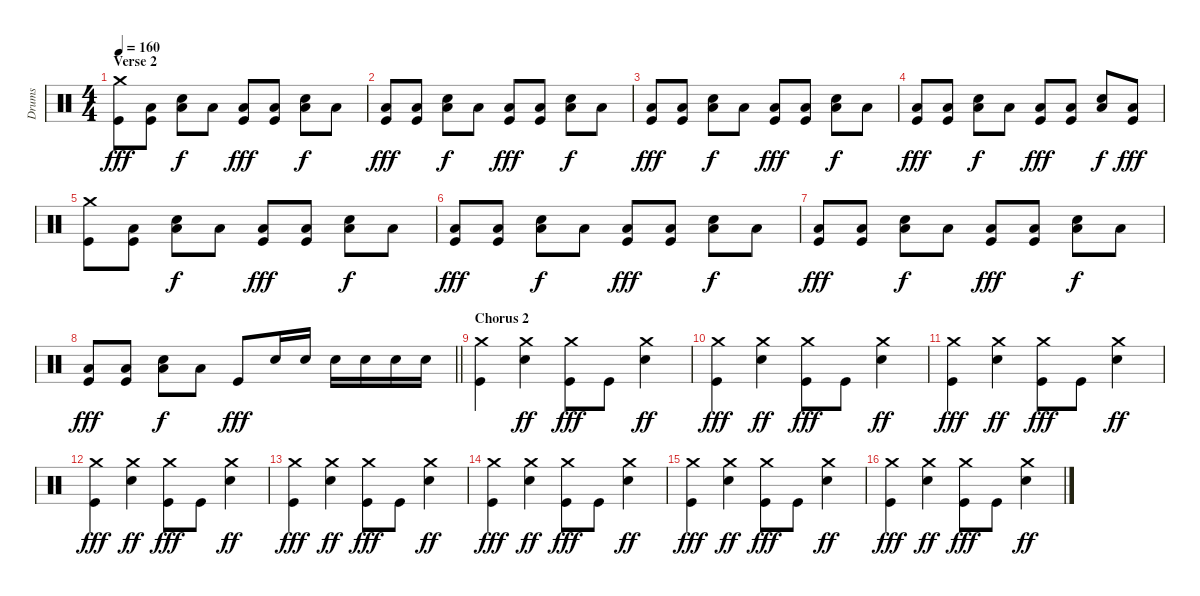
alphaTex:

\track ("Drums" "Drums") {instrument percussion}
\staff {score}
\articulation defaults
\ts (4 4)
\section ("" "Verse 2")
\tempo 160
\clef neutral
\ks c
("Crash medium (hit)" "Kick (hit)").8{dy fff} ("Low Floor Tom (hit)" "Kick (hit)").8 ("Low Floor Tom (hit)" "Electric Snare (hit)").8{dy f} "Low Floor Tom (hit)".8 ("Low Floor Tom (hit)" "Kick (hit)").8{dy fff} ("Low Floor Tom (hit)" "Kick (hit)").8 ("Low Floor Tom (hit)" "Electric Snare (hit)").8{dy f} "Low Floor Tom (hit)".8 |
("Low Floor Tom (hit)" "Kick (hit)").8{dy fff} ("Low Floor Tom (hit)" "Kick (hit)").8 ("Low Floor Tom (hit)" "Electric Snare (hit)").8{dy f} "Low Floor Tom (hit)".8 ("Low Floor Tom (hit)" "Kick (hit)").8{dy fff} ("Low Floor Tom (hit)" "Kick (hit)").8 ("Low Floor Tom (hit)" "Electric Snare (hit)").8{dy f} "Low Floor Tom (hit)".8 |
("Low Floor Tom (hit)" "Kick (hit)").8{dy fff} ("Low Floor Tom (hit)" "Kick (hit)").8 ("Low Floor Tom (hit)" "Electric Snare (hit)").8{dy f} "Low Floor Tom (hit)".8 ("Low Floor Tom (hit)" "Kick (hit)").8{dy fff} ("Low Floor Tom (hit)" "Kick (hit)").8 ("Low Floor Tom (hit)" "Electric Snare (hit)").8{dy f} "Low Floor Tom (hit)".8 |
("Low Floor Tom (hit)" "Kick (hit)").8{dy fff} ("Low Floor Tom (hit)" "Kick (hit)").8 ("Low Floor Tom (hit)" "Electric Snare (hit)").8{dy f} "Low Floor Tom (hit)".8 ("Low Floor Tom (hit)" "Kick (hit)").8{dy fff} ("Low Floor Tom (hit)" "Kick (hit)").8 ("Low Floor Tom (hit)" "Electric Snare (hit)").8{dy f} ("Low Floor Tom (hit)" "Kick (hit)").8{dy fff} |
("Crash medium (hit)" "Kick (hit)").8 ("Low Floor Tom (hit)" "Kick (hit)").8 ("Low Floor Tom (hit)" "Electric Snare (hit)").8{dy f} "Low Floor Tom (hit)".8 ("Low Floor Tom (hit)" "Kick (hit)").8{dy fff} ("Low Floor Tom (hit)" "Kick (hit)").8 ("Low Floor Tom (hit)" "Electric Snare (hit)").8{dy f} "Low Floor Tom (hit)".8 |
("Low Floor Tom (hit)" "Kick (hit)").8{dy fff} ("Low Floor Tom (hit)" "Kick (hit)").8 ("Low Floor Tom (hit)" "Electric Snare (hit)").8{dy f} "Low Floor Tom (hit)".8 ("Low Floor Tom (hit)" "Kick (hit)").8{dy fff} ("Low Floor Tom (hit)" "Kick (hit)").8 ("Low Floor Tom (hit)" "Electric Snare (hit)").8{dy f} "Low Floor Tom (hit)".8 |
("Low Floor Tom (hit)" "Kick (hit)").8{dy fff} ("Low Floor Tom (hit)" "Kick (hit)").8 ("Low Floor Tom (hit)" "Electric Snare (hit)").8{dy f} "Low Floor Tom (hit)".8 ("Low Floor Tom (hit)" "Kick (hit)").8{dy fff} ("Low Floor Tom (hit)" "Kick (hit)").8 ("Low Floor Tom (hit)" "Electric Snare (hit)").8{dy f} "Low Floor Tom (hit)".8 |
\barLineRight lightlight
("Low Floor Tom (hit)" "Kick (hit)").8{dy fff} ("Low Floor Tom (hit)" "Kick (hit)").8 ("Low Floor Tom (hit)" "Electric Snare (hit)").8{dy f} "Low Floor Tom (hit)".8 "Kick (hit)".8{dy fff} "Electric Snare (hit)".16 "Electric Snare (hit)".16 "Electric Snare (hit)".16 "Electric Snare (hit)".16 "Electric Snare (hit)".16 "Electric Snare (hit)".16 |
\section ("" "Chorus 2")
("Crash medium (hit)" "Kick (hit)").4 ("Crash medium (hit)" "Snare (hit) 2").4{dy ff} ("Crash medium (hit)" "Kick (hit)").8{dy fff} "Kick (hit)".8 ("Crash medium (hit)" "Snare (hit) 2").4{dy ff} |
("Crash medium (hit)" "Kick (hit)").4{dy fff} ("Crash medium (hit)" "Snare (hit) 2").4{dy ff} ("Crash medium (hit)" "Kick (hit)").8{dy fff} "Kick (hit)".8 ("Crash medium (hit)" "Snare (hit) 2").4{dy ff} |
("Crash medium (hit)" "Kick (hit)").4{dy fff} ("Crash medium (hit)" "Snare (hit) 2").4{dy ff} ("Crash medium (hit)" "Kick (hit)").8{dy fff} "Kick (hit)".8 ("Crash medium (hit)" "Snare (hit) 2").4{dy ff} |
("Crash medium (hit)" "Kick (hit)").4{dy fff} ("Crash medium (hit)" "Snare (hit) 2").4{dy ff} ("Crash medium (hit)" "Kick (hit)").8{dy fff} "Kick (hit)".8 ("Crash medium (hit)" "Snare (hit) 2").4{dy ff} |
("Crash medium (hit)" "Kick (hit)").4{dy fff} ("Crash medium (hit)" "Snare (hit) 2").4{dy ff} ("Crash medium (hit)" "Kick (hit)").8{dy fff} "Kick (hit)".8 ("Crash medium (hit)" "Snare (hit) 2").4{dy ff} |
("Crash medium (hit)" "Kick (hit)").4{dy fff} ("Crash medium (hit)" "Snare (hit) 2").4{dy ff} ("Crash medium (hit)" "Kick (hit)").8{dy fff} "Kick (hit)".8 ("Crash medium (hit)" "Snare (hit) 2").4{dy ff} |
("Crash medium (hit)" "Kick (hit)").4{dy fff} ("Crash medium (hit)" "Snare (hit) 2").4{dy ff} ("Crash medium (hit)" "Kick (hit)").8{dy fff} "Kick (hit)".8 ("Crash medium (hit)" "Snare (hit) 2").4{dy ff} |
("Crash medium (hit)" "Kick (hit)").4{dy fff} ("Crash medium (hit)" "Snare (hit) 2").4{dy ff} ("Crash medium (hit)" "Kick (hit)").8{dy fff} "Kick (hit)".8 ("Crash medium (hit)" "Snare (hit) 2").4{dy ff}
